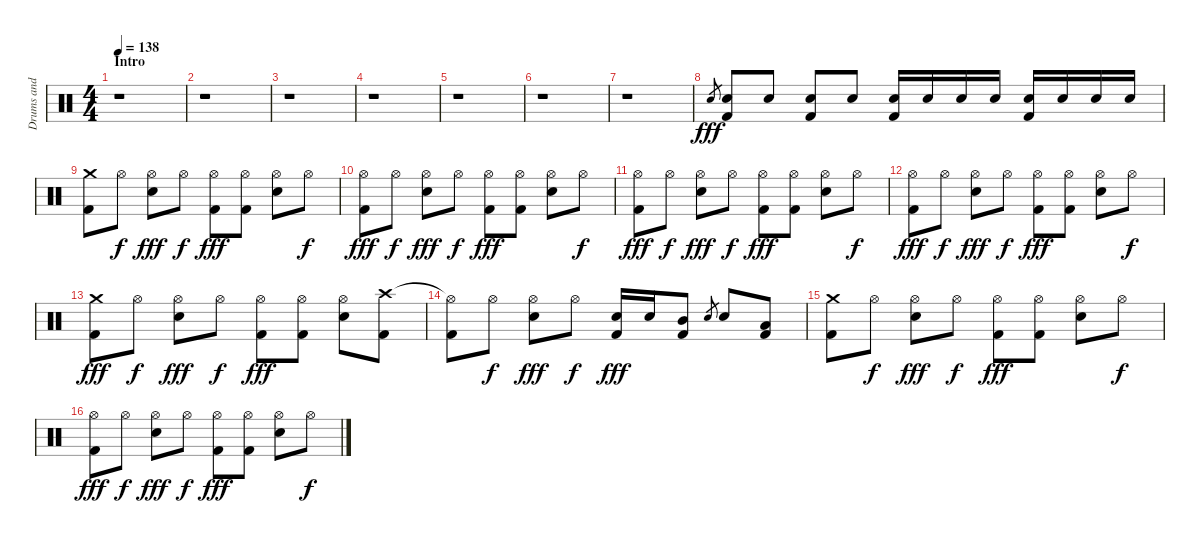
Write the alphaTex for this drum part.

\track ("Drums and Percussion" "Drums and ") {instrument percussion}
\staff {score}
\articulation defaults
\ts (4 4)
\section ("" "Intro")
\tempo 138
\clef neutral
\ks c
r.1{dy fff} |
r.1 |
r.1 |
r.1 |
r.1 |
r.1 |
r.1 |
"Snare (hit) 2".8{gr} ("Snare (hit) 2" "Kick (hit) 2").8 "Snare (hit) 2".8 ("Snare (hit) 2" "Kick (hit) 2").8 "Snare (hit) 2".8 ("Snare (hit) 2" "Kick (hit) 2").16 "Snare (hit) 2".16 "Snare (hit) 2".16 "Snare (hit) 2".16 ("Snare (hit) 2" "Kick (hit) 2").16 "Snare (hit) 2".16 "Snare (hit) 2".16 "Snare (hit) 2".16 |
("Crash medium (hit)" "Kick (hit) 2").8 "Hi-Hat (open)".8{dy f} ("Hi-Hat (open)" "Snare (hit) 2").8{dy fff} "Hi-Hat (open)".8{dy f} ("Hi-Hat (open)" "Kick (hit) 2").8{dy fff} ("Hi-Hat (open)" "Kick (hit) 2").8 ("Hi-Hat (open)" "Snare (hit) 2").8 "Hi-Hat (open)".8{dy f} |
("Hi-Hat (open)" "Kick (hit) 2").8{dy fff} "Hi-Hat (open)".8{dy f} ("Hi-Hat (open)" "Snare (hit) 2").8{dy fff} "Hi-Hat (open)".8{dy f} ("Hi-Hat (open)" "Kick (hit) 2").8{dy fff} ("Hi-Hat (open)" "Kick (hit) 2").8 ("Hi-Hat (open)" "Snare (hit) 2").8 "Hi-Hat (open)".8{dy f} |
("Hi-Hat (open)" "Kick (hit) 2").8{dy fff} "Hi-Hat (open)".8{dy f} ("Hi-Hat (open)" "Snare (hit) 2").8{dy fff} "Hi-Hat (open)".8{dy f} ("Hi-Hat (open)" "Kick (hit) 2").8{dy fff} ("Hi-Hat (open)" "Kick (hit) 2").8 ("Hi-Hat (open)" "Snare (hit) 2").8 "Hi-Hat (open)".8{dy f} |
("Hi-Hat (open)" "Kick (hit) 2").8{dy fff} "Hi-Hat (open)".8{dy f} ("Hi-Hat (open)" "Snare (hit) 2").8{dy fff} "Hi-Hat (open)".8{dy f} ("Hi-Hat (open)" "Kick (hit) 2").8{dy fff} ("Hi-Hat (open)" "Kick (hit) 2").8 ("Hi-Hat (open)" "Snare (hit) 2").8 "Hi-Hat (open)".8{dy f} |
("Crash medium (hit)" "Kick (hit) 2").8{dy fff} "Hi-Hat (open)".8{dy f} ("Hi-Hat (open)" "Snare (hit) 2").8{dy fff} "Hi-Hat (open)".8{dy f} ("Hi-Hat (open)" "Kick (hit) 2").8{dy fff} ("Hi-Hat (open)" "Kick (hit) 2").8 ("Hi-Hat (open)" "Snare (hit) 2").8 ("Crash high (hit)" "Kick (hit) 2").8 |
("Hi-Hat (open)"{t} "Kick (hit) 2").8 "Hi-Hat (open)".8{dy f} ("Hi-Hat (open)" "Snare (hit) 2").8{dy fff} "Hi-Hat (open)".8{dy f} ("Snare (hit) 2" "Kick (hit) 2").16{dy fff} "Snare (hit) 2".16 ("Mid Tom (hit)" "Kick (hit) 2").8 "Snare (hit) 2".8{gr} "Snare (hit) 2".8 ("Low Tom (hit)" "Kick (hit) 2").8 |
("Crash medium (hit)" "Kick (hit) 2").8 "Hi-Hat (open)".8{dy f} ("Hi-Hat (open)" "Snare (hit) 2").8{dy fff} "Hi-Hat (open)".8{dy f} ("Hi-Hat (open)" "Kick (hit) 2").8{dy fff} ("Hi-Hat (open)" "Kick (hit) 2").8 ("Hi-Hat (open)" "Snare (hit) 2").8 "Hi-Hat (open)".8{dy f} |
("Hi-Hat (open)" "Kick (hit) 2").8{dy fff} "Hi-Hat (open)".8{dy f} ("Hi-Hat (open)" "Snare (hit) 2").8{dy fff} "Hi-Hat (open)".8{dy f} ("Hi-Hat (open)" "Kick (hit) 2").8{dy fff} ("Hi-Hat (open)" "Kick (hit) 2").8 ("Hi-Hat (open)" "Snare (hit) 2").8 "Hi-Hat (open)".8{dy f}
